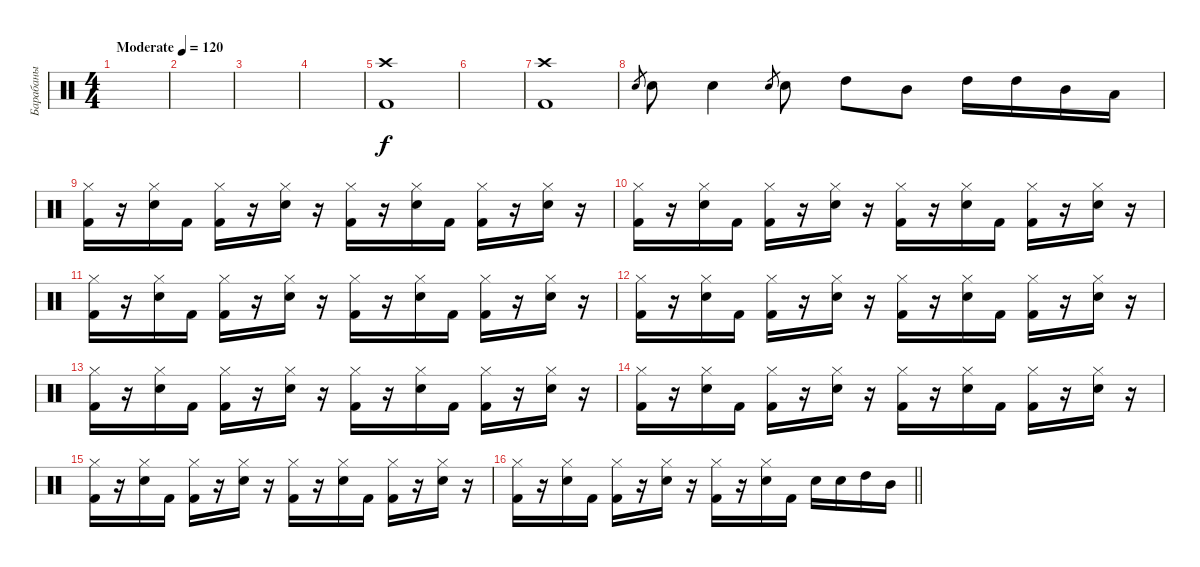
\track ("Барабаны" "Барабаны") {instrument percussion}
\staff {score}
\articulation defaults
\ts (4 4)
\tempo (120 "Moderate")
\clef neutral
\ks c
|
|
|
|
("Crash high (hit)" "Kick (hit) 2").1 |
|
("Crash high (hit)" "Kick (hit) 2").1 |
"Electric Snare (hit)".8{gr} "Electric Snare (hit)".8 "Electric Snare (hit)".4 "Electric Snare (hit)".8{gr} "Electric Snare (hit)".8 "High Tom (hit)".8 "Mid Tom (hit)".8 "High Tom (hit)".16 "High Tom (hit)".16 "Mid Tom (hit)".16 "Low Tom (hit)".16 |
("Hi-Hat (closed)" "Kick (hit) 2").16 r.16 ("Hi-Hat (closed)" "Electric Snare (hit)").16 "Kick (hit) 2".16 ("Hi-Hat (closed)" "Kick (hit) 2").16 r.16 ("Hi-Hat (closed)" "Electric Snare (hit)").16 r.16 ("Hi-Hat (closed)" "Kick (hit) 2").16 r.16 ("Hi-Hat (closed)" "Electric Snare (hit)").16 "Kick (hit) 2".16 ("Hi-Hat (closed)" "Kick (hit) 2").16 r.16 ("Hi-Hat (closed)" "Electric Snare (hit)").16 r.16 |
("Hi-Hat (closed)" "Kick (hit) 2").16 r.16 ("Hi-Hat (closed)" "Electric Snare (hit)").16 "Kick (hit) 2".16 ("Hi-Hat (closed)" "Kick (hit) 2").16 r.16 ("Hi-Hat (closed)" "Electric Snare (hit)").16 r.16 ("Hi-Hat (closed)" "Kick (hit) 2").16 r.16 ("Hi-Hat (closed)" "Electric Snare (hit)").16 "Kick (hit) 2".16 ("Hi-Hat (closed)" "Kick (hit) 2").16 r.16 ("Hi-Hat (closed)" "Electric Snare (hit)").16 r.16 |
("Hi-Hat (closed)" "Kick (hit) 2").16 r.16 ("Hi-Hat (closed)" "Electric Snare (hit)").16 "Kick (hit) 2".16 ("Hi-Hat (closed)" "Kick (hit) 2").16 r.16 ("Hi-Hat (closed)" "Electric Snare (hit)").16 r.16 ("Hi-Hat (closed)" "Kick (hit) 2").16 r.16 ("Hi-Hat (closed)" "Electric Snare (hit)").16 "Kick (hit) 2".16 ("Hi-Hat (closed)" "Kick (hit) 2").16 r.16 ("Hi-Hat (closed)" "Electric Snare (hit)").16 r.16 |
("Hi-Hat (closed)" "Kick (hit) 2").16 r.16 ("Hi-Hat (closed)" "Electric Snare (hit)").16 "Kick (hit) 2".16 ("Hi-Hat (closed)" "Kick (hit) 2").16 r.16 ("Hi-Hat (closed)" "Electric Snare (hit)").16 r.16 ("Hi-Hat (closed)" "Kick (hit) 2").16 r.16 ("Hi-Hat (closed)" "Electric Snare (hit)").16 "Kick (hit) 2".16 ("Hi-Hat (closed)" "Kick (hit) 2").16 r.16 ("Hi-Hat (closed)" "Electric Snare (hit)").16 r.16 |
("Hi-Hat (closed)" "Kick (hit) 2").16 r.16 ("Hi-Hat (closed)" "Electric Snare (hit)").16 "Kick (hit) 2".16 ("Hi-Hat (closed)" "Kick (hit) 2").16 r.16 ("Hi-Hat (closed)" "Electric Snare (hit)").16 r.16 ("Hi-Hat (closed)" "Kick (hit) 2").16 r.16 ("Hi-Hat (closed)" "Electric Snare (hit)").16 "Kick (hit) 2".16 ("Hi-Hat (closed)" "Kick (hit) 2").16 r.16 ("Hi-Hat (closed)" "Electric Snare (hit)").16 r.16 |
("Hi-Hat (closed)" "Kick (hit) 2").16 r.16 ("Hi-Hat (closed)" "Electric Snare (hit)").16 "Kick (hit) 2".16 ("Hi-Hat (closed)" "Kick (hit) 2").16 r.16 ("Hi-Hat (closed)" "Electric Snare (hit)").16 r.16 ("Hi-Hat (closed)" "Kick (hit) 2").16 r.16 ("Hi-Hat (closed)" "Electric Snare (hit)").16 "Kick (hit) 2".16 ("Hi-Hat (closed)" "Kick (hit) 2").16 r.16 ("Hi-Hat (closed)" "Electric Snare (hit)").16 r.16 |
("Hi-Hat (closed)" "Kick (hit) 2").16 r.16 ("Hi-Hat (closed)" "Electric Snare (hit)").16 "Kick (hit) 2".16 ("Hi-Hat (closed)" "Kick (hit) 2").16 r.16 ("Hi-Hat (closed)" "Electric Snare (hit)").16 r.16 ("Hi-Hat (closed)" "Kick (hit) 2").16 r.16 ("Hi-Hat (closed)" "Electric Snare (hit)").16 "Kick (hit) 2".16 ("Hi-Hat (closed)" "Kick (hit) 2").16 r.16 ("Hi-Hat (closed)" "Electric Snare (hit)").16 r.16 |
\barLineRight lightlight
("Hi-Hat (closed)" "Kick (hit) 2").16 r.16 ("Hi-Hat (closed)" "Electric Snare (hit)").16 "Kick (hit) 2".16 ("Hi-Hat (closed)" "Kick (hit) 2").16 r.16 ("Hi-Hat (closed)" "Electric Snare (hit)").16 r.16 ("Hi-Hat (closed)" "Kick (hit) 2").16 r.16 ("Hi-Hat (closed)" "Electric Snare (hit)").16 "Kick (hit) 2".16 "Electric Snare (hit)".16 "Electric Snare (hit)".16 "High Tom (hit)".16 "Mid Tom (hit)".16
